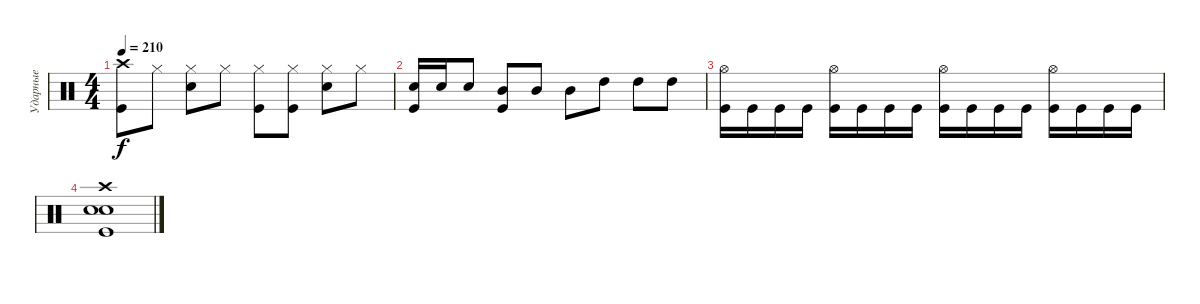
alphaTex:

\track ("Ударные" "Ударные") {instrument percussion}
\staff {score}
\articulation defaults
\ts (4 4)
\tempo 210
\clef neutral
\ks c
("Crash high (hit)" "Kick (hit)").8{dy f} "Hi-Hat (closed)".8 ("Hi-Hat (closed)" "Electric Snare (hit)").8 "Hi-Hat (closed)".8 ("Hi-Hat (closed)" "Kick (hit)").8 ("Hi-Hat (closed)" "Kick (hit)").8 ("Hi-Hat (closed)" "Electric Snare (hit)").8 "Hi-Hat (closed)".8 |
("Electric Snare (hit)" "Kick (hit)").16 "Electric Snare (hit)".16 "Electric Snare (hit)".8 ("Mid Tom (hit)" "Kick (hit)").8 "Mid Tom (hit)".8 "Mid Tom (hit)".8 "High Tom (hit)".8 "High Tom (hit)".8 "High Tom (hit)".8 |
("Hi-Hat (open)" "Kick (hit)").16 "Kick (hit)".16 "Kick (hit)".16 "Kick (hit)".16 ("Hi-Hat (open)" "Kick (hit)").16 "Kick (hit)".16 "Kick (hit)".16 "Kick (hit)".16 ("Hi-Hat (open)" "Kick (hit)").16 "Kick (hit)".16 "Kick (hit)".16 "Kick (hit)".16 ("Hi-Hat (open)" "Kick (hit)").16 "Kick (hit)".16 "Kick (hit)".16 "Kick (hit)".16 |
("Electric Snare (hit)" "Crash high (hit)" "Electric Snare (hit)" "Kick (hit)").1
